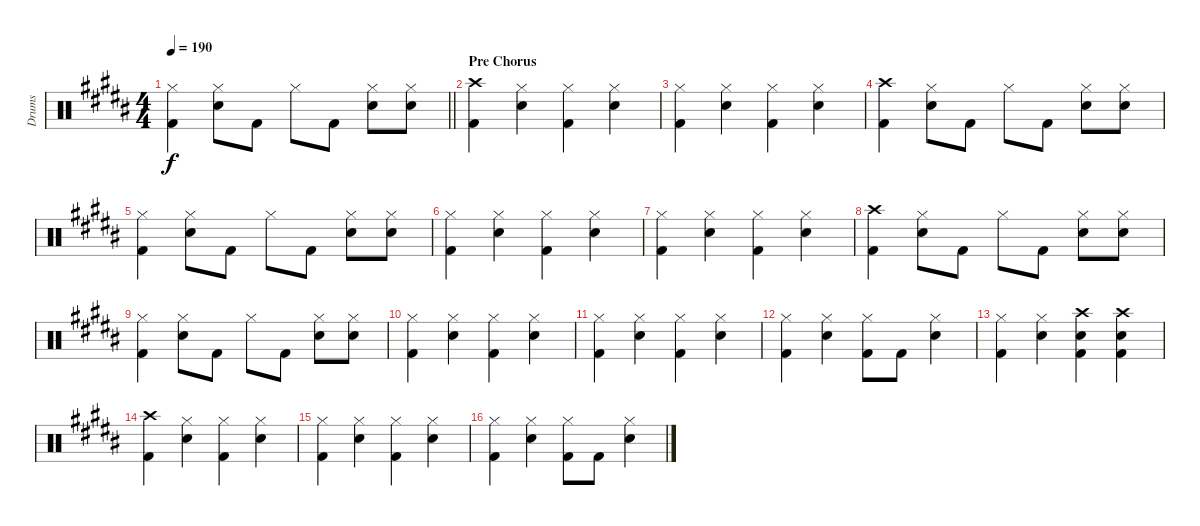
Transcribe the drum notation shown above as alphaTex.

\track ("Drums" "Drums") {instrument percussion}
\staff {score}
\articulation defaults
\ts (4 4)
\tempo 190
\clef neutral
\barLineRight lightlight
\ks b
("Hi-Hat (closed)" "Kick (hit) 2").4{dy f} ("Hi-Hat (closed)" "Electric Snare (hit)").8 "Kick (hit) 2".8 "Hi-Hat (closed)".8 "Kick (hit) 2".8 ("Hi-Hat (closed)" "Electric Snare (hit)").8 ("Hi-Hat (closed)" "Electric Snare (hit)").8 |
\section ("" "Pre Chorus")
("Crash high (hit)" "Kick (hit) 2").4 ("Hi-Hat (closed)" "Electric Snare (hit)").4 ("Hi-Hat (closed)" "Kick (hit) 2").4 ("Hi-Hat (closed)" "Electric Snare (hit)").4 |
("Hi-Hat (closed)" "Kick (hit) 2").4 ("Hi-Hat (closed)" "Electric Snare (hit)").4 ("Hi-Hat (closed)" "Kick (hit) 2").4 ("Hi-Hat (closed)" "Electric Snare (hit)").4 |
("Crash high (hit)" "Kick (hit) 2").4 ("Hi-Hat (closed)" "Electric Snare (hit)").8 "Kick (hit) 2".8 "Hi-Hat (closed)".8 "Kick (hit) 2".8 ("Hi-Hat (closed)" "Electric Snare (hit)").8 ("Hi-Hat (closed)" "Electric Snare (hit)").8 |
("Hi-Hat (closed)" "Kick (hit) 2").4 ("Hi-Hat (closed)" "Electric Snare (hit)").8 "Kick (hit) 2".8 "Hi-Hat (closed)".8 "Kick (hit) 2".8 ("Hi-Hat (closed)" "Electric Snare (hit)").8 ("Hi-Hat (closed)" "Electric Snare (hit)").8 |
("Hi-Hat (closed)" "Kick (hit) 2").4 ("Hi-Hat (closed)" "Electric Snare (hit)").4 ("Hi-Hat (closed)" "Kick (hit) 2").4 ("Hi-Hat (closed)" "Electric Snare (hit)").4 |
("Hi-Hat (closed)" "Kick (hit) 2").4 ("Hi-Hat (closed)" "Electric Snare (hit)").4 ("Hi-Hat (closed)" "Kick (hit) 2").4 ("Hi-Hat (closed)" "Electric Snare (hit)").4 |
("Crash high (hit)" "Kick (hit) 2").4 ("Hi-Hat (closed)" "Electric Snare (hit)").8 "Kick (hit) 2".8 "Hi-Hat (closed)".8 "Kick (hit) 2".8 ("Hi-Hat (closed)" "Electric Snare (hit)").8 ("Hi-Hat (closed)" "Electric Snare (hit)").8 |
("Hi-Hat (closed)" "Kick (hit) 2").4 ("Hi-Hat (closed)" "Electric Snare (hit)").8 "Kick (hit) 2".8 "Hi-Hat (closed)".8 "Kick (hit) 2".8 ("Hi-Hat (closed)" "Electric Snare (hit)").8 ("Hi-Hat (closed)" "Electric Snare (hit)").8 |
("Hi-Hat (closed)" "Kick (hit) 2").4 ("Hi-Hat (closed)" "Electric Snare (hit)").4 ("Hi-Hat (closed)" "Kick (hit) 2").4 ("Hi-Hat (closed)" "Electric Snare (hit)").4 |
("Hi-Hat (closed)" "Kick (hit) 2").4 ("Hi-Hat (closed)" "Electric Snare (hit)").4 ("Hi-Hat (closed)" "Kick (hit) 2").4 ("Hi-Hat (closed)" "Electric Snare (hit)").4 |
("Hi-Hat (closed)" "Kick (hit) 2").4 ("Hi-Hat (closed)" "Electric Snare (hit)").4 ("Hi-Hat (closed)" "Kick (hit) 2").8 "Kick (hit) 2".8 ("Hi-Hat (closed)" "Electric Snare (hit)").4 |
("Hi-Hat (closed)" "Kick (hit) 2").4 ("Hi-Hat (closed)" "Electric Snare (hit)").4 ("Crash high (hit)" "Electric Snare (hit)" "Kick (hit) 2").4 ("Crash high (hit)" "Electric Snare (hit)" "Kick (hit) 2").4 |
("Crash high (hit)" "Kick (hit) 2").4 ("Hi-Hat (closed)" "Electric Snare (hit)").4 ("Hi-Hat (closed)" "Kick (hit) 2").4 ("Hi-Hat (closed)" "Electric Snare (hit)").4 |
("Hi-Hat (closed)" "Kick (hit) 2").4 ("Hi-Hat (closed)" "Electric Snare (hit)").4 ("Hi-Hat (closed)" "Kick (hit) 2").4 ("Hi-Hat (closed)" "Electric Snare (hit)").4 |
("Hi-Hat (closed)" "Kick (hit) 2").4 ("Hi-Hat (closed)" "Electric Snare (hit)").4 ("Hi-Hat (closed)" "Kick (hit) 2").8 "Kick (hit) 2".8 ("Hi-Hat (closed)" "Electric Snare (hit)").4
